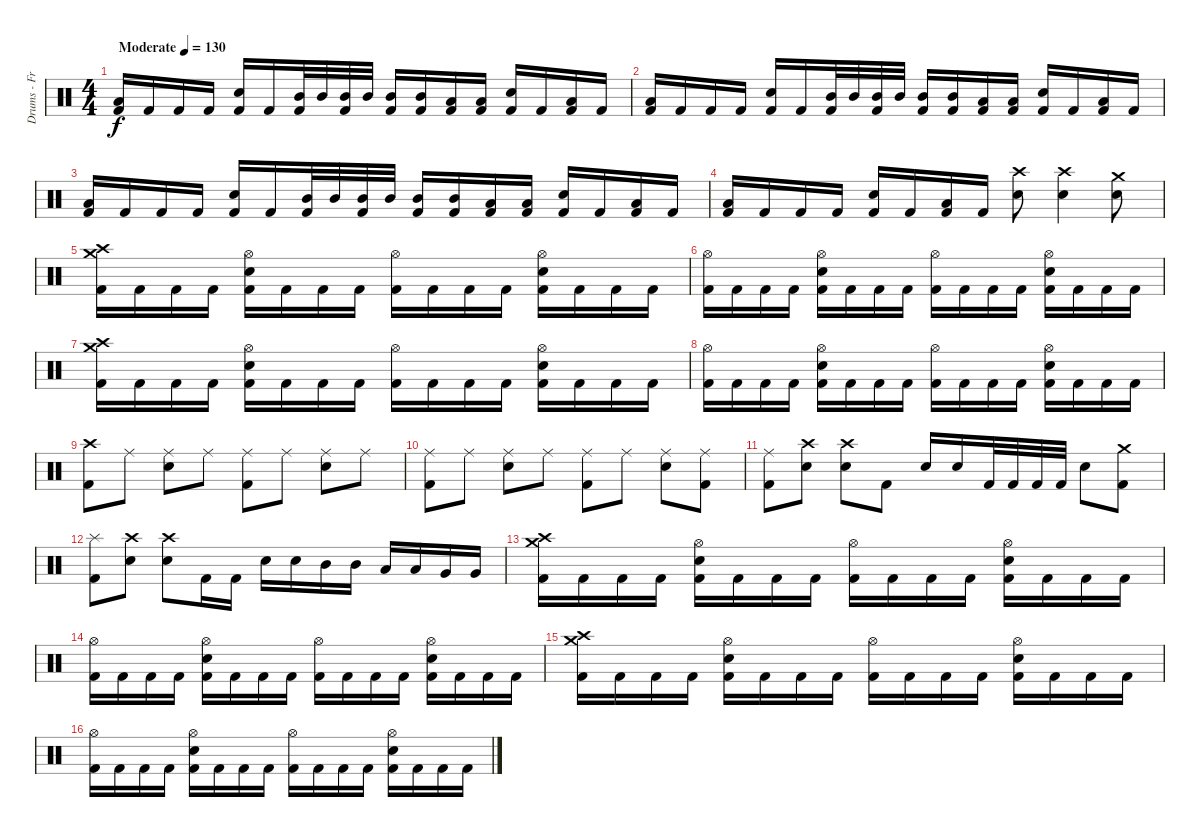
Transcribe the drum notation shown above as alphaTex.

\track ("Drums - Fredrik Andersson" "Drums - Fr") {instrument percussion}
\staff {score}
\articulation defaults
\ts (4 4)
\tempo (130 "Moderate")
\clef neutral
\ks c
("Kick (hit) 2" "Low Floor Tom (hit)").16{dy f} "Kick (hit) 2".16 "Kick (hit) 2".16 "Kick (hit) 2".16 ("Kick (hit) 2" "Snare (hit) 2").16 "Kick (hit) 2".16 ("Kick (hit) 2" "Mid Tom (hit)").32 "Mid Tom (hit)".32 ("Kick (hit) 2" "Mid Tom (hit)").32 "Mid Tom (hit)".32 ("Kick (hit) 2" "Mid Tom (hit)").16 ("Kick (hit) 2" "Mid Tom (hit)").16 ("Kick (hit) 2" "Low Tom (hit)").16 ("Kick (hit) 2" "Low Tom (hit)").16 ("Kick (hit) 2" "Snare (hit) 2").16 "Kick (hit) 2".16 ("Kick (hit) 2" "Low Floor Tom (hit)").16 "Kick (hit) 2".16 |
("Kick (hit) 2" "Low Floor Tom (hit)").16 "Kick (hit) 2".16 "Kick (hit) 2".16 "Kick (hit) 2".16 ("Kick (hit) 2" "Snare (hit) 2").16 "Kick (hit) 2".16 ("Kick (hit) 2" "Mid Tom (hit)").32 "Mid Tom (hit)".32 ("Kick (hit) 2" "Mid Tom (hit)").32 "Mid Tom (hit)".32 ("Kick (hit) 2" "Mid Tom (hit)").16 ("Kick (hit) 2" "Mid Tom (hit)").16 ("Kick (hit) 2" "Low Tom (hit)").16 ("Kick (hit) 2" "Low Tom (hit)").16 ("Kick (hit) 2" "Snare (hit) 2").16 "Kick (hit) 2".16 ("Kick (hit) 2" "Low Floor Tom (hit)").16 "Kick (hit) 2".16 |
("Kick (hit) 2" "Low Floor Tom (hit)").16 "Kick (hit) 2".16 "Kick (hit) 2".16 "Kick (hit) 2".16 ("Kick (hit) 2" "Snare (hit) 2").16 "Kick (hit) 2".16 ("Kick (hit) 2" "Mid Tom (hit)").32 "Mid Tom (hit)".32 ("Kick (hit) 2" "Mid Tom (hit)").32 "Mid Tom (hit)".32 ("Kick (hit) 2" "Mid Tom (hit)").16 ("Kick (hit) 2" "Mid Tom (hit)").16 ("Kick (hit) 2" "Low Tom (hit)").16 ("Kick (hit) 2" "Low Tom (hit)").16 ("Kick (hit) 2" "Snare (hit) 2").16 "Kick (hit) 2".16 ("Kick (hit) 2" "Low Floor Tom (hit)").16 "Kick (hit) 2".16 |
("Kick (hit) 2" "Low Floor Tom (hit)").16 "Kick (hit) 2".16 "Kick (hit) 2".16 "Kick (hit) 2".16 ("Kick (hit) 2" "Snare (hit) 2").16 "Kick (hit) 2".16 ("Kick (hit) 2" "Low Floor Tom (hit)").16 "Kick (hit) 2".16 ("Crash high (hit)" "Snare (hit) 2").8 ("Crash high (hit)" "Snare (hit) 2").4 ("Crash medium (hit)" "Snare (hit) 2").8 |
("Kick (hit) 2" "Crash high (hit)" "Crash medium (hit)").16 "Kick (hit) 2".16 "Kick (hit) 2".16 "Kick (hit) 2".16 ("Kick (hit) 2" "Snare (hit) 2" "Hi-Hat (open)").16 "Kick (hit) 2".16 "Kick (hit) 2".16 "Kick (hit) 2".16 ("Kick (hit) 2" "Hi-Hat (open)").16 "Kick (hit) 2".16 "Kick (hit) 2".16 "Kick (hit) 2".16 ("Kick (hit) 2" "Snare (hit) 2" "Hi-Hat (open)").16 "Kick (hit) 2".16 "Kick (hit) 2".16 "Kick (hit) 2".16 |
("Kick (hit) 2" "Hi-Hat (open)").16 "Kick (hit) 2".16 "Kick (hit) 2".16 "Kick (hit) 2".16 ("Kick (hit) 2" "Snare (hit) 2" "Hi-Hat (open)").16 "Kick (hit) 2".16 "Kick (hit) 2".16 "Kick (hit) 2".16 ("Kick (hit) 2" "Hi-Hat (open)").16 "Kick (hit) 2".16 "Kick (hit) 2".16 "Kick (hit) 2".16 ("Kick (hit) 2" "Snare (hit) 2" "Hi-Hat (open)").16 "Kick (hit) 2".16 "Kick (hit) 2".16 "Kick (hit) 2".16 |
("Kick (hit) 2" "Crash high (hit)" "Crash medium (hit)").16 "Kick (hit) 2".16 "Kick (hit) 2".16 "Kick (hit) 2".16 ("Kick (hit) 2" "Snare (hit) 2" "Hi-Hat (open)").16 "Kick (hit) 2".16 "Kick (hit) 2".16 "Kick (hit) 2".16 ("Kick (hit) 2" "Hi-Hat (open)").16 "Kick (hit) 2".16 "Kick (hit) 2".16 "Kick (hit) 2".16 ("Kick (hit) 2" "Snare (hit) 2" "Hi-Hat (open)").16 "Kick (hit) 2".16 "Kick (hit) 2".16 "Kick (hit) 2".16 |
("Kick (hit) 2" "Hi-Hat (open)").16 "Kick (hit) 2".16 "Kick (hit) 2".16 "Kick (hit) 2".16 ("Kick (hit) 2" "Snare (hit) 2" "Hi-Hat (open)").16 "Kick (hit) 2".16 "Kick (hit) 2".16 "Kick (hit) 2".16 ("Kick (hit) 2" "Hi-Hat (open)").16 "Kick (hit) 2".16 "Kick (hit) 2".16 "Kick (hit) 2".16 ("Kick (hit) 2" "Snare (hit) 2" "Hi-Hat (open)").16 "Kick (hit) 2".16 "Kick (hit) 2".16 "Kick (hit) 2".16 |
("Kick (hit) 2" "Crash high (hit)").8 "Ride (middle)".8 ("Snare (hit) 2" "Ride (middle)").8 "Ride (middle)".8 ("Kick (hit) 2" "Ride (middle)").8 "Ride (middle)".8 ("Snare (hit) 2" "Ride (middle)").8 "Ride (middle)".8 |
("Kick (hit) 2" "Ride (middle)").8 "Ride (middle)".8 ("Snare (hit) 2" "Ride (middle)").8 "Ride (middle)".8 ("Kick (hit) 2" "Ride (middle)").8 "Ride (middle)".8 ("Snare (hit) 2" "Ride (middle)").8 ("Kick (hit) 2" "Ride (middle)").8 |
("Ride (middle)" "Kick (hit) 2").8 ("Snare (hit) 2" "Crash high (hit)").8 ("Snare (hit) 2" "Crash high (hit)").8 "Kick (hit) 2".8 "Snare (hit) 2".16 "Snare (hit) 2".16 "Kick (hit) 2".32 "Kick (hit) 2".32 "Kick (hit) 2".32 "Kick (hit) 2".32 "Snare (hit) 2".8 ("Crash medium (hit)" "Kick (hit) 2").8 |
("Kick (hit) 2" "Splash (hit)").8 ("Snare (hit) 2" "Crash high (hit)").8 ("Snare (hit) 2" "Crash high (hit)").8 "Kick (hit) 2".16 "Kick (hit) 2".16 "Snare (hit) 2".16 "Snare (hit) 2".16 "Mid Tom (hit)".16 "Mid Tom (hit)".16 "Low Tom (hit)".16 "Low Tom (hit)".16 "Very Low Tom (hit)".16 "Very Low Tom (hit)".16 |
("Kick (hit) 2" "Crash high (hit)" "Crash medium (hit)").16 "Kick (hit) 2".16 "Kick (hit) 2".16 "Kick (hit) 2".16 ("Kick (hit) 2" "Snare (hit) 2" "Hi-Hat (open)").16 "Kick (hit) 2".16 "Kick (hit) 2".16 "Kick (hit) 2".16 ("Kick (hit) 2" "Hi-Hat (open)").16 "Kick (hit) 2".16 "Kick (hit) 2".16 "Kick (hit) 2".16 ("Kick (hit) 2" "Snare (hit) 2" "Hi-Hat (open)").16 "Kick (hit) 2".16 "Kick (hit) 2".16 "Kick (hit) 2".16 |
("Kick (hit) 2" "Hi-Hat (open)").16 "Kick (hit) 2".16 "Kick (hit) 2".16 "Kick (hit) 2".16 ("Kick (hit) 2" "Snare (hit) 2" "Hi-Hat (open)").16 "Kick (hit) 2".16 "Kick (hit) 2".16 "Kick (hit) 2".16 ("Kick (hit) 2" "Hi-Hat (open)").16 "Kick (hit) 2".16 "Kick (hit) 2".16 "Kick (hit) 2".16 ("Kick (hit) 2" "Snare (hit) 2" "Hi-Hat (open)").16 "Kick (hit) 2".16 "Kick (hit) 2".16 "Kick (hit) 2".16 |
("Kick (hit) 2" "Crash high (hit)" "Crash medium (hit)").16 "Kick (hit) 2".16 "Kick (hit) 2".16 "Kick (hit) 2".16 ("Kick (hit) 2" "Snare (hit) 2" "Hi-Hat (open)").16 "Kick (hit) 2".16 "Kick (hit) 2".16 "Kick (hit) 2".16 ("Kick (hit) 2" "Hi-Hat (open)").16 "Kick (hit) 2".16 "Kick (hit) 2".16 "Kick (hit) 2".16 ("Kick (hit) 2" "Snare (hit) 2" "Hi-Hat (open)").16 "Kick (hit) 2".16 "Kick (hit) 2".16 "Kick (hit) 2".16 |
("Kick (hit) 2" "Hi-Hat (open)").16 "Kick (hit) 2".16 "Kick (hit) 2".16 "Kick (hit) 2".16 ("Kick (hit) 2" "Snare (hit) 2" "Hi-Hat (open)").16 "Kick (hit) 2".16 "Kick (hit) 2".16 "Kick (hit) 2".16 ("Kick (hit) 2" "Hi-Hat (open)").16 "Kick (hit) 2".16 "Kick (hit) 2".16 "Kick (hit) 2".16 ("Kick (hit) 2" "Snare (hit) 2" "Hi-Hat (open)").16 "Kick (hit) 2".16 "Kick (hit) 2".16 "Kick (hit) 2".16
